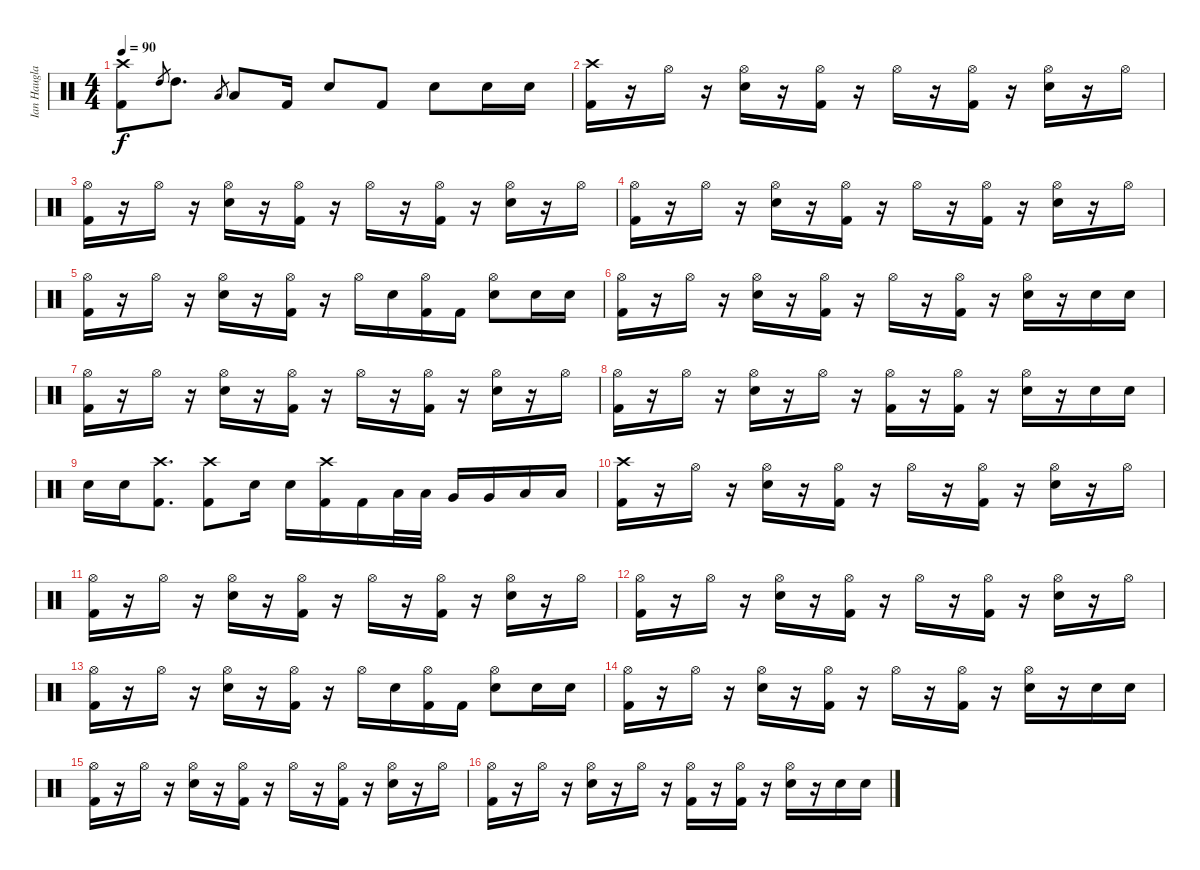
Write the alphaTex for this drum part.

\track ("Ian Haugland" "Ian Haugla") {instrument percussion}
\staff {score}
\articulation defaults
\ts (4 4)
\tempo 90
\clef neutral
\ks c
("Crash high (hit)" "Kick (hit) 2").8{dy f} "High Tom (hit)".8{gr} "High Tom (hit)".8{d} "Low Tom (hit)".8{gr} "Low Tom (hit)".8 "Kick (hit) 2".16 "Electric Snare (hit)".8 "Kick (hit) 2".8 "Electric Snare (hit)".8 "Electric Snare (hit)".16 "Electric Snare (hit)".16 |
("Crash high (hit)" "Kick (hit) 2").16 r.16 "Hi-Hat (open)".16 r.16 ("Hi-Hat (open)" "Electric Snare (hit)").16 r.16 ("Hi-Hat (open)" "Kick (hit) 2").16 r.16 "Hi-Hat (open)".16 r.16 ("Hi-Hat (open)" "Kick (hit) 2").16 r.16 ("Hi-Hat (open)" "Electric Snare (hit)").16 r.16 "Hi-Hat (open)".16 |
("Hi-Hat (open)" "Kick (hit) 2").16 r.16 "Hi-Hat (open)".16 r.16 ("Hi-Hat (open)" "Electric Snare (hit)").16 r.16 ("Hi-Hat (open)" "Kick (hit) 2").16 r.16 "Hi-Hat (open)".16 r.16 ("Hi-Hat (open)" "Kick (hit) 2").16 r.16 ("Hi-Hat (open)" "Electric Snare (hit)").16 r.16 "Hi-Hat (open)".16 |
("Hi-Hat (open)" "Kick (hit) 2").16 r.16 "Hi-Hat (open)".16 r.16 ("Hi-Hat (open)" "Electric Snare (hit)").16 r.16 ("Hi-Hat (open)" "Kick (hit) 2").16 r.16 "Hi-Hat (open)".16 r.16 ("Hi-Hat (open)" "Kick (hit) 2").16 r.16 ("Hi-Hat (open)" "Electric Snare (hit)").16 r.16 "Hi-Hat (open)".16 |
("Hi-Hat (open)" "Kick (hit) 2").16 r.16 "Hi-Hat (open)".16 r.16 ("Hi-Hat (open)" "Electric Snare (hit)").16 r.16 ("Hi-Hat (open)" "Kick (hit) 2").16 r.16 "Hi-Hat (open)".16 "Electric Snare (hit)".16 ("Hi-Hat (open)" "Kick (hit) 2").16 "Kick (hit) 2".16 ("Hi-Hat (open)" "Electric Snare (hit)").8 "Electric Snare (hit)".16 "Electric Snare (hit)".16 |
("Hi-Hat (open)" "Kick (hit) 2").16 r.16 "Hi-Hat (open)".16 r.16 ("Hi-Hat (open)" "Electric Snare (hit)").16 r.16 ("Hi-Hat (open)" "Kick (hit) 2").16 r.16 "Hi-Hat (open)".16 r.16 ("Hi-Hat (open)" "Kick (hit) 2").16 r.16 ("Hi-Hat (open)" "Electric Snare (hit)").16 r.16 "Electric Snare (hit)".16 "Electric Snare (hit)".16 |
("Hi-Hat (open)" "Kick (hit) 2").16 r.16 "Hi-Hat (open)".16 r.16 ("Hi-Hat (open)" "Electric Snare (hit)").16 r.16 ("Hi-Hat (open)" "Kick (hit) 2").16 r.16 "Hi-Hat (open)".16 r.16 ("Hi-Hat (open)" "Kick (hit) 2").16 r.16 ("Hi-Hat (open)" "Electric Snare (hit)").16 r.16 "Hi-Hat (open)".16 |
("Hi-Hat (open)" "Kick (hit) 2").16 r.16 "Hi-Hat (open)".16 r.16 ("Hi-Hat (open)" "Electric Snare (hit)").16 r.16 "Hi-Hat (open)".16 r.16 ("Hi-Hat (open)" "Kick (hit) 2").16 r.16 ("Hi-Hat (open)" "Kick (hit) 2").16 r.16 ("Hi-Hat (open)" "Electric Snare (hit)").16 r.16 "Electric Snare (hit)".16 "Electric Snare (hit)".16 |
"Electric Snare (hit)".16 "Electric Snare (hit)".16 ("Crash high (hit)" "Kick (hit) 2").8{d} ("Crash high (hit)" "Kick (hit) 2").8 "Electric Snare (hit)".16 "Electric Snare (hit)".16 ("Crash high (hit)" "Kick (hit) 2").16 "Kick (hit) 2".16 "Low Tom (hit)".32 "Low Tom (hit)".32 "Very Low Tom (hit)".16 "Very Low Tom (hit)".16 "Low Floor Tom (hit)".16 "Low Floor Tom (hit)".16 |
("Crash high (hit)" "Kick (hit) 2").16 r.16 "Hi-Hat (open)".16 r.16 ("Hi-Hat (open)" "Electric Snare (hit)").16 r.16 ("Hi-Hat (open)" "Kick (hit) 2").16 r.16 "Hi-Hat (open)".16 r.16 ("Hi-Hat (open)" "Kick (hit) 2").16 r.16 ("Hi-Hat (open)" "Electric Snare (hit)").16 r.16 "Hi-Hat (open)".16 |
("Hi-Hat (open)" "Kick (hit) 2").16 r.16 "Hi-Hat (open)".16 r.16 ("Hi-Hat (open)" "Electric Snare (hit)").16 r.16 ("Hi-Hat (open)" "Kick (hit) 2").16 r.16 "Hi-Hat (open)".16 r.16 ("Hi-Hat (open)" "Kick (hit) 2").16 r.16 ("Hi-Hat (open)" "Electric Snare (hit)").16 r.16 "Hi-Hat (open)".16 |
("Hi-Hat (open)" "Kick (hit) 2").16 r.16 "Hi-Hat (open)".16 r.16 ("Hi-Hat (open)" "Electric Snare (hit)").16 r.16 ("Hi-Hat (open)" "Kick (hit) 2").16 r.16 "Hi-Hat (open)".16 r.16 ("Hi-Hat (open)" "Kick (hit) 2").16 r.16 ("Hi-Hat (open)" "Electric Snare (hit)").16 r.16 "Hi-Hat (open)".16 |
("Hi-Hat (open)" "Kick (hit) 2").16 r.16 "Hi-Hat (open)".16 r.16 ("Hi-Hat (open)" "Electric Snare (hit)").16 r.16 ("Hi-Hat (open)" "Kick (hit) 2").16 r.16 "Hi-Hat (open)".16 "Electric Snare (hit)".16 ("Hi-Hat (open)" "Kick (hit) 2").16 "Kick (hit) 2".16 ("Hi-Hat (open)" "Electric Snare (hit)").8 "Electric Snare (hit)".16 "Electric Snare (hit)".16 |
("Hi-Hat (open)" "Kick (hit) 2").16 r.16 "Hi-Hat (open)".16 r.16 ("Hi-Hat (open)" "Electric Snare (hit)").16 r.16 ("Hi-Hat (open)" "Kick (hit) 2").16 r.16 "Hi-Hat (open)".16 r.16 ("Hi-Hat (open)" "Kick (hit) 2").16 r.16 ("Hi-Hat (open)" "Electric Snare (hit)").16 r.16 "Electric Snare (hit)".16 "Electric Snare (hit)".16 |
("Hi-Hat (open)" "Kick (hit) 2").16 r.16 "Hi-Hat (open)".16 r.16 ("Hi-Hat (open)" "Electric Snare (hit)").16 r.16 ("Hi-Hat (open)" "Kick (hit) 2").16 r.16 "Hi-Hat (open)".16 r.16 ("Hi-Hat (open)" "Kick (hit) 2").16 r.16 ("Hi-Hat (open)" "Electric Snare (hit)").16 r.16 "Hi-Hat (open)".16 |
("Hi-Hat (open)" "Kick (hit) 2").16 r.16 "Hi-Hat (open)".16 r.16 ("Hi-Hat (open)" "Electric Snare (hit)").16 r.16 "Hi-Hat (open)".16 r.16 ("Hi-Hat (open)" "Kick (hit) 2").16 r.16 ("Hi-Hat (open)" "Kick (hit) 2").16 r.16 ("Hi-Hat (open)" "Electric Snare (hit)").16 r.16 "Electric Snare (hit)".16 "Electric Snare (hit)".16
